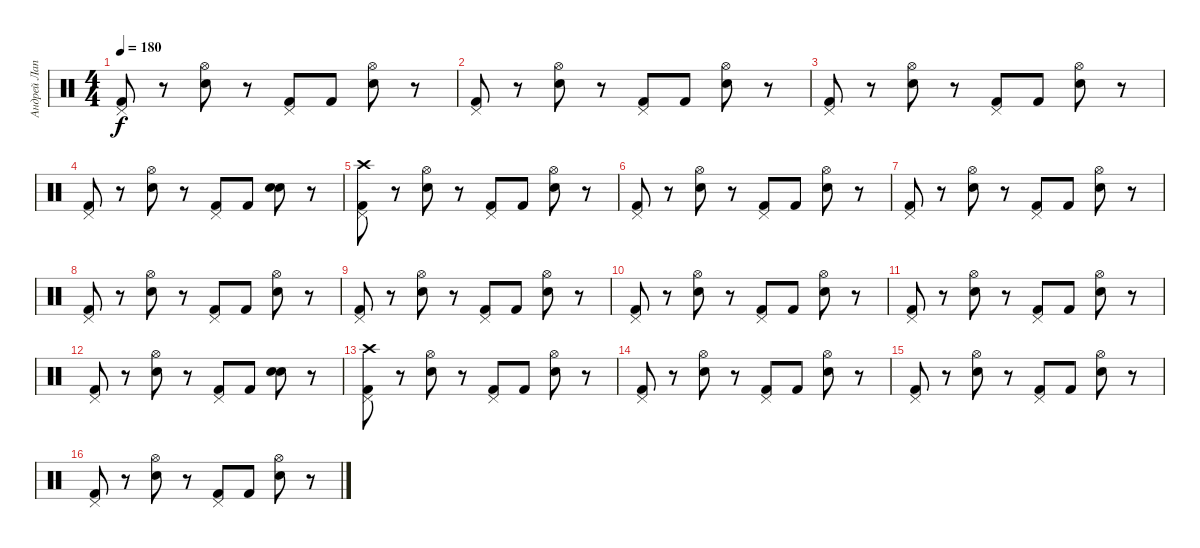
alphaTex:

\track ("Андрей Лаптев" "Андрей Лап") {instrument percussion}
\staff {score}
\articulation defaults
\ts (4 4)
\tempo 180
\clef neutral
\ks c
("Kick (hit) 2" "Pedal Hi-Hat (hit)").8{dy f} r.8 ("Snare (hit) 2" "Hi-Hat (open)").8 r.8 ("Kick (hit) 2" "Pedal Hi-Hat (hit)").8 "Kick (hit) 2".8 ("Snare (hit) 2" "Hi-Hat (open)").8 r.8 |
("Kick (hit) 2" "Pedal Hi-Hat (hit)").8 r.8 ("Snare (hit) 2" "Hi-Hat (open)").8 r.8 ("Kick (hit) 2" "Pedal Hi-Hat (hit)").8 "Kick (hit) 2".8 ("Snare (hit) 2" "Hi-Hat (open)").8 r.8 |
("Kick (hit) 2" "Pedal Hi-Hat (hit)").8 r.8 ("Snare (hit) 2" "Hi-Hat (open)").8 r.8 ("Kick (hit) 2" "Pedal Hi-Hat (hit)").8 "Kick (hit) 2".8 ("Snare (hit) 2" "Hi-Hat (open)").8 r.8 |
("Kick (hit) 2" "Pedal Hi-Hat (hit)").8 r.8 ("Snare (hit) 2" "Hi-Hat (open)").8 r.8 ("Kick (hit) 2" "Pedal Hi-Hat (hit)").8 "Kick (hit) 2".8 ("Snare (hit) 2" "Electric Snare (hit)").8 r.8 |
("Kick (hit) 2" "Crash high (hit)" "Pedal Hi-Hat (hit)").8 r.8 ("Snare (hit) 2" "Hi-Hat (open)").8 r.8 ("Kick (hit) 2" "Pedal Hi-Hat (hit)").8 "Kick (hit) 2".8 ("Snare (hit) 2" "Hi-Hat (open)").8 r.8 |
("Kick (hit) 2" "Pedal Hi-Hat (hit)").8 r.8 ("Snare (hit) 2" "Hi-Hat (open)").8 r.8 ("Kick (hit) 2" "Pedal Hi-Hat (hit)").8 "Kick (hit) 2".8 ("Snare (hit) 2" "Hi-Hat (open)").8 r.8 |
("Kick (hit) 2" "Pedal Hi-Hat (hit)").8 r.8 ("Snare (hit) 2" "Hi-Hat (open)").8 r.8 ("Kick (hit) 2" "Pedal Hi-Hat (hit)").8 "Kick (hit) 2".8 ("Snare (hit) 2" "Hi-Hat (open)").8 r.8 |
("Kick (hit) 2" "Pedal Hi-Hat (hit)").8 r.8 ("Snare (hit) 2" "Hi-Hat (open)").8 r.8 ("Kick (hit) 2" "Pedal Hi-Hat (hit)").8 "Kick (hit) 2".8 ("Snare (hit) 2" "Hi-Hat (open)").8 r.8 |
("Kick (hit) 2" "Pedal Hi-Hat (hit)").8 r.8 ("Snare (hit) 2" "Hi-Hat (open)").8 r.8 ("Kick (hit) 2" "Pedal Hi-Hat (hit)").8 "Kick (hit) 2".8 ("Snare (hit) 2" "Hi-Hat (open)").8 r.8 |
("Kick (hit) 2" "Pedal Hi-Hat (hit)").8 r.8 ("Snare (hit) 2" "Hi-Hat (open)").8 r.8 ("Kick (hit) 2" "Pedal Hi-Hat (hit)").8 "Kick (hit) 2".8 ("Snare (hit) 2" "Hi-Hat (open)").8 r.8 |
("Kick (hit) 2" "Pedal Hi-Hat (hit)").8 r.8 ("Snare (hit) 2" "Hi-Hat (open)").8 r.8 ("Kick (hit) 2" "Pedal Hi-Hat (hit)").8 "Kick (hit) 2".8 ("Snare (hit) 2" "Hi-Hat (open)").8 r.8 |
("Kick (hit) 2" "Pedal Hi-Hat (hit)").8 r.8 ("Snare (hit) 2" "Hi-Hat (open)").8 r.8 ("Kick (hit) 2" "Pedal Hi-Hat (hit)").8 "Kick (hit) 2".8 ("Snare (hit) 2" "Electric Snare (hit)").8 r.8 |
("Kick (hit) 2" "Crash high (hit)" "Pedal Hi-Hat (hit)").8 r.8 ("Snare (hit) 2" "Hi-Hat (open)").8 r.8 ("Kick (hit) 2" "Pedal Hi-Hat (hit)").8 "Kick (hit) 2".8 ("Snare (hit) 2" "Hi-Hat (open)").8 r.8 |
("Kick (hit) 2" "Pedal Hi-Hat (hit)").8 r.8 ("Snare (hit) 2" "Hi-Hat (open)").8 r.8 ("Kick (hit) 2" "Pedal Hi-Hat (hit)").8 "Kick (hit) 2".8 ("Snare (hit) 2" "Hi-Hat (open)").8 r.8 |
("Kick (hit) 2" "Pedal Hi-Hat (hit)").8 r.8 ("Snare (hit) 2" "Hi-Hat (open)").8 r.8 ("Kick (hit) 2" "Pedal Hi-Hat (hit)").8 "Kick (hit) 2".8 ("Snare (hit) 2" "Hi-Hat (open)").8 r.8 |
("Kick (hit) 2" "Pedal Hi-Hat (hit)").8 r.8 ("Snare (hit) 2" "Hi-Hat (open)").8 r.8 ("Kick (hit) 2" "Pedal Hi-Hat (hit)").8 "Kick (hit) 2".8 ("Snare (hit) 2" "Hi-Hat (open)").8 r.8
